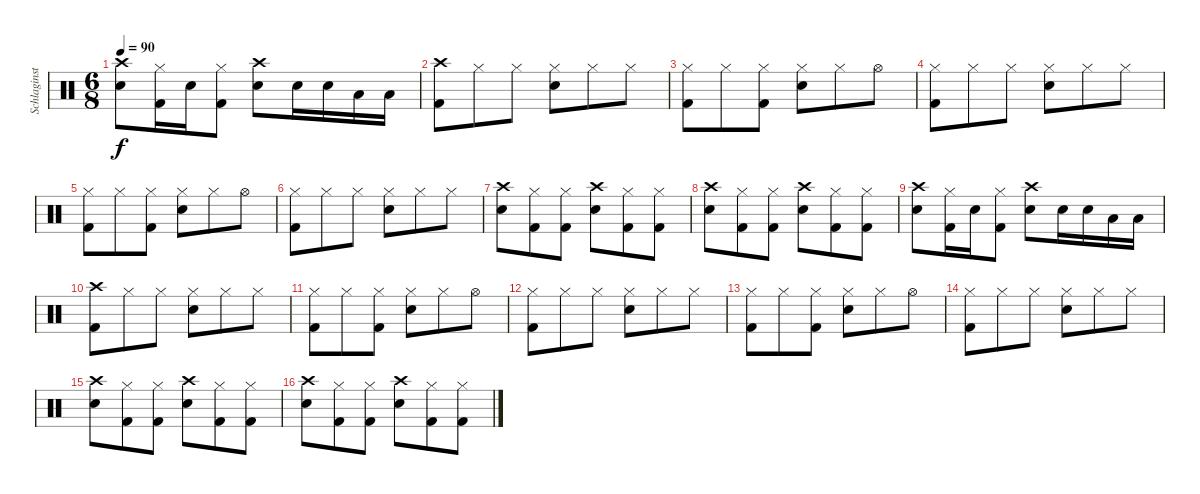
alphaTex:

\track ("Schlaginstrumente - Auswahl" "Schlaginst") {instrument percussion}
\staff {score}
\articulation defaults
\ts (6 8)
\tempo 90
\clef neutral
\ks c
("Crash high (hit)" "Snare (hit) 2").8{dy f} ("Hi-Hat (closed)" "Kick (hit) 2").16 "Snare (hit) 2".16 ("Hi-Hat (closed)" "Kick (hit) 2").8 ("Crash high (hit)" "Snare (hit) 2").8 "Snare (hit) 2".16 "Snare (hit) 2".16 "Low Tom (hit)".16 "Low Tom (hit)".16 |
("Crash high (hit)" "Kick (hit) 2").8 "Hi-Hat (closed)".8 "Hi-Hat (closed)".8 ("Hi-Hat (closed)" "Snare (hit) 2").8 "Hi-Hat (closed)".8 "Hi-Hat (closed)".8 |
("Hi-Hat (closed)" "Kick (hit) 2").8 "Hi-Hat (closed)".8 ("Hi-Hat (closed)" "Kick (hit) 2").8 ("Hi-Hat (closed)" "Snare (hit) 2").8 "Hi-Hat (closed)".8 "Hi-Hat (open)".8 |
("Hi-Hat (closed)" "Kick (hit) 2").8 "Hi-Hat (closed)".8 "Hi-Hat (closed)".8 ("Hi-Hat (closed)" "Snare (hit) 2").8 "Hi-Hat (closed)".8 "Hi-Hat (closed)".8 |
("Hi-Hat (closed)" "Kick (hit) 2").8 "Hi-Hat (closed)".8 ("Hi-Hat (closed)" "Kick (hit) 2").8 ("Hi-Hat (closed)" "Snare (hit) 2").8 "Hi-Hat (closed)".8 "Hi-Hat (open)".8 |
("Hi-Hat (closed)" "Kick (hit) 2").8 "Hi-Hat (closed)".8 "Hi-Hat (closed)".8 ("Hi-Hat (closed)" "Snare (hit) 2").8 "Hi-Hat (closed)".8 "Hi-Hat (closed)".8 |
("Crash high (hit)" "Snare (hit) 2").8 ("Hi-Hat (closed)" "Kick (hit) 2").8 ("Hi-Hat (closed)" "Kick (hit) 2").8 ("Crash high (hit)" "Snare (hit) 2").8 ("Hi-Hat (closed)" "Kick (hit) 2").8 ("Hi-Hat (closed)" "Kick (hit) 2").8 |
("Crash high (hit)" "Snare (hit) 2").8 ("Hi-Hat (closed)" "Kick (hit) 2").8 ("Hi-Hat (closed)" "Kick (hit) 2").8 ("Crash high (hit)" "Snare (hit) 2").8 ("Hi-Hat (closed)" "Kick (hit) 2").8 ("Hi-Hat (closed)" "Kick (hit) 2").8 |
("Crash high (hit)" "Snare (hit) 2").8 ("Hi-Hat (closed)" "Kick (hit) 2").16 "Snare (hit) 2".16 ("Hi-Hat (closed)" "Kick (hit) 2").8 ("Crash high (hit)" "Snare (hit) 2").8 "Snare (hit) 2".16 "Snare (hit) 2".16 "Low Tom (hit)".16 "Low Tom (hit)".16 |
("Crash high (hit)" "Kick (hit) 2").8 "Hi-Hat (closed)".8 "Hi-Hat (closed)".8 ("Hi-Hat (closed)" "Snare (hit) 2").8 "Hi-Hat (closed)".8 "Hi-Hat (closed)".8 |
("Hi-Hat (closed)" "Kick (hit) 2").8 "Hi-Hat (closed)".8 ("Hi-Hat (closed)" "Kick (hit) 2").8 ("Hi-Hat (closed)" "Snare (hit) 2").8 "Hi-Hat (closed)".8 "Hi-Hat (open)".8 |
("Hi-Hat (closed)" "Kick (hit) 2").8 "Hi-Hat (closed)".8 "Hi-Hat (closed)".8 ("Hi-Hat (closed)" "Snare (hit) 2").8 "Hi-Hat (closed)".8 "Hi-Hat (closed)".8 |
("Hi-Hat (closed)" "Kick (hit) 2").8 "Hi-Hat (closed)".8 ("Hi-Hat (closed)" "Kick (hit) 2").8 ("Hi-Hat (closed)" "Snare (hit) 2").8 "Hi-Hat (closed)".8 "Hi-Hat (open)".8 |
("Hi-Hat (closed)" "Kick (hit) 2").8 "Hi-Hat (closed)".8 "Hi-Hat (closed)".8 ("Hi-Hat (closed)" "Snare (hit) 2").8 "Hi-Hat (closed)".8 "Hi-Hat (closed)".8 |
("Crash high (hit)" "Snare (hit) 2").8 ("Hi-Hat (closed)" "Kick (hit) 2").8 ("Hi-Hat (closed)" "Kick (hit) 2").8 ("Crash high (hit)" "Snare (hit) 2").8 ("Hi-Hat (closed)" "Kick (hit) 2").8 ("Hi-Hat (closed)" "Kick (hit) 2").8 |
("Crash high (hit)" "Snare (hit) 2").8 ("Hi-Hat (closed)" "Kick (hit) 2").8 ("Hi-Hat (closed)" "Kick (hit) 2").8 ("Crash high (hit)" "Snare (hit) 2").8 ("Hi-Hat (closed)" "Kick (hit) 2").8 ("Hi-Hat (closed)" "Kick (hit) 2").8
